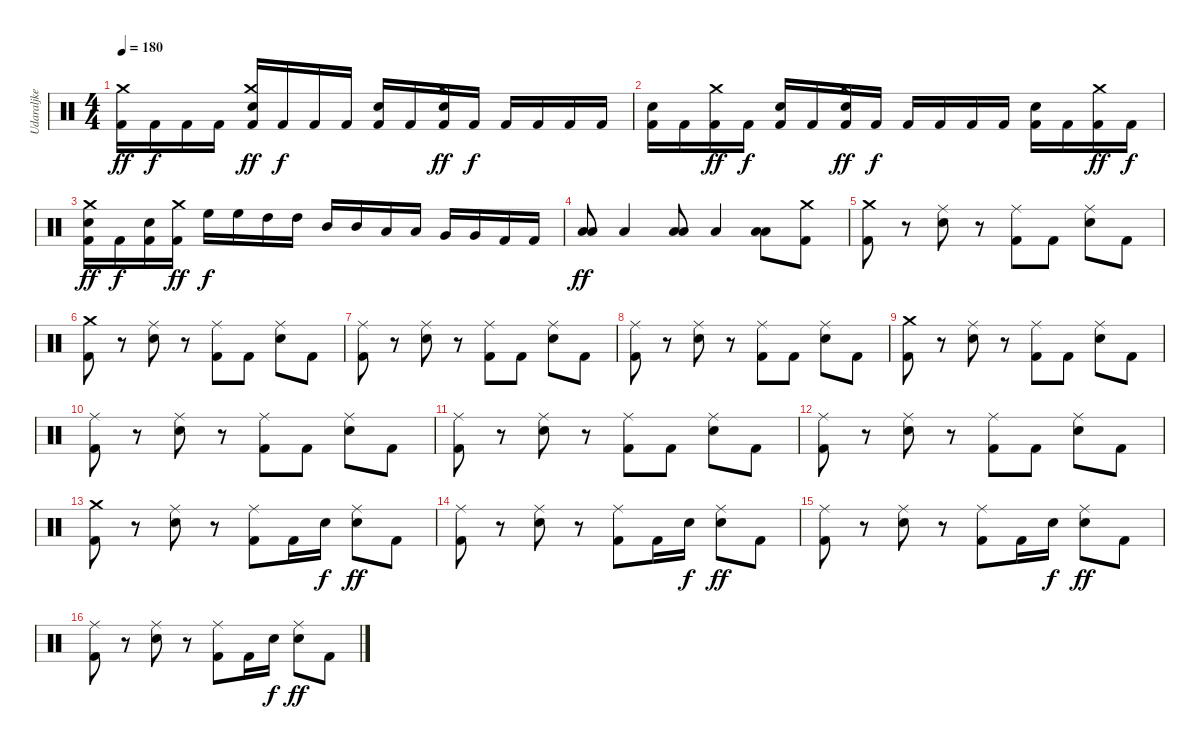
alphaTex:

\track ("Udaraljke" "Udaraljke") {instrument percussion}
\staff {score}
\articulation defaults
\ts (4 4)
\tempo 180
\clef neutral
\ks c
("Kick (hit) 2" "Crash medium (hit)").16{dy ff} "Kick (hit) 2".16{dy f} "Kick (hit) 2".16 "Kick (hit) 2".16 ("Kick (hit) 2" "Snare (hit) 2" "Crash medium (hit)").16{dy ff} "Kick (hit) 2".16{dy f} "Kick (hit) 2".16 "Kick (hit) 2".16 ("Kick (hit) 2" "Snare (hit) 2").16 "Kick (hit) 2".16 ("Kick (hit) 2" "Snare (hit) 2" "Crash medium (hit)").16{dy ff} "Kick (hit) 2".16{dy f} "Kick (hit) 2".16 "Kick (hit) 2".16 "Kick (hit) 2".16 "Kick (hit) 2".16 |
("Kick (hit) 2" "Snare (hit) 2").16 "Kick (hit) 2".16 ("Kick (hit) 2" "Crash medium (hit)").16{dy ff} "Kick (hit) 2".16{dy f} ("Kick (hit) 2" "Snare (hit) 2").16 "Kick (hit) 2".16 ("Kick (hit) 2" "Snare (hit) 2" "Crash medium (hit)").16{dy ff} "Kick (hit) 2".16{dy f} "Kick (hit) 2".16 "Kick (hit) 2".16 "Kick (hit) 2".16 "Kick (hit) 2".16 ("Kick (hit) 2" "Snare (hit) 2").16 "Kick (hit) 2".16 ("Kick (hit) 2" "Crash medium (hit)").16{dy ff} "Kick (hit) 2".16{dy f} |
("Kick (hit) 2" "Snare (hit) 2" "Crash medium (hit)").16{dy ff} "Kick (hit) 2".16{dy f} ("Kick (hit) 2" "Snare (hit) 2").16 ("Kick (hit) 2" "Crash medium (hit)").16{dy ff} "High Floor Tom (hit)".16{dy f} "High Floor Tom (hit)".16 "High Tom (hit)".16 "High Tom (hit)".16 "Mid Tom (hit)".16 "Mid Tom (hit)".16 "Low Tom (hit)".16 "Low Tom (hit)".16 "Very Low Tom (hit)".16 "Very Low Tom (hit)".16 "Kick (hit) 2".16 "Kick (hit) 2".16 |
("Low Floor Tom (hit)" "Low Floor Tom (hit)").8{dy ff} "Low Floor Tom (hit)".4 ("Low Floor Tom (hit)" "Low Floor Tom (hit)").8 "Low Floor Tom (hit)".4 ("Low Floor Tom (hit)" "Low Floor Tom (hit)").8 ("Crash medium (hit)" "Kick (hit) 2").8 |
("Kick (hit) 2" "Crash medium (hit)").8 r.8 ("Snare (hit) 2" "Ride (middle)").8 r.8 ("Kick (hit) 2" "Ride (middle)").8 "Kick (hit) 2".8 ("Snare (hit) 2" "Ride (middle)").8 "Kick (hit) 2".8 |
("Kick (hit) 2" "Crash medium (hit)").8 r.8 ("Snare (hit) 2" "Ride (middle)").8 r.8 ("Kick (hit) 2" "Ride (middle)").8 "Kick (hit) 2".8 ("Snare (hit) 2" "Ride (middle)").8 "Kick (hit) 2".8 |
("Kick (hit) 2" "Ride (middle)").8 r.8 ("Snare (hit) 2" "Ride (middle)").8 r.8 ("Kick (hit) 2" "Ride (middle)").8 "Kick (hit) 2".8 ("Snare (hit) 2" "Ride (middle)").8 "Kick (hit) 2".8 |
("Kick (hit) 2" "Ride (middle)").8 r.8 ("Snare (hit) 2" "Ride (middle)").8 r.8 ("Kick (hit) 2" "Ride (middle)").8 "Kick (hit) 2".8 ("Snare (hit) 2" "Ride (middle)").8 "Kick (hit) 2".8 |
("Kick (hit) 2" "Crash medium (hit)").8 r.8 ("Snare (hit) 2" "Ride (middle)").8 r.8 ("Kick (hit) 2" "Ride (middle)").8 "Kick (hit) 2".8 ("Snare (hit) 2" "Ride (middle)").8 "Kick (hit) 2".8 |
("Kick (hit) 2" "Ride (middle)").8 r.8 ("Snare (hit) 2" "Ride (middle)").8 r.8 ("Kick (hit) 2" "Ride (middle)").8 "Kick (hit) 2".8 ("Snare (hit) 2" "Ride (middle)").8 "Kick (hit) 2".8 |
("Kick (hit) 2" "Ride (middle)").8 r.8 ("Snare (hit) 2" "Ride (middle)").8 r.8 ("Kick (hit) 2" "Ride (middle)").8 "Kick (hit) 2".8 ("Snare (hit) 2" "Ride (middle)").8 "Kick (hit) 2".8 |
("Kick (hit) 2" "Ride (middle)").8 r.8 ("Snare (hit) 2" "Ride (middle)").8 r.8 ("Kick (hit) 2" "Ride (middle)").8 "Kick (hit) 2".8 ("Snare (hit) 2" "Ride (middle)").8 "Kick (hit) 2".8 |
("Kick (hit) 2" "Crash medium (hit)").8 r.8 ("Snare (hit) 2" "Ride (middle)").8 r.8 ("Kick (hit) 2" "Ride (middle)").8 "Kick (hit) 2".16 "Snare (hit) 2".16{dy f} ("Snare (hit) 2" "Ride (middle)").8{dy ff} "Kick (hit) 2".8 |
("Kick (hit) 2" "Ride (middle)").8 r.8 ("Snare (hit) 2" "Ride (middle)").8 r.8 ("Kick (hit) 2" "Ride (middle)").8 "Kick (hit) 2".16 "Snare (hit) 2".16{dy f} ("Snare (hit) 2" "Ride (middle)").8{dy ff} "Kick (hit) 2".8 |
("Kick (hit) 2" "Ride (middle)").8 r.8 ("Snare (hit) 2" "Ride (middle)").8 r.8 ("Kick (hit) 2" "Ride (middle)").8 "Kick (hit) 2".16 "Snare (hit) 2".16{dy f} ("Snare (hit) 2" "Ride (middle)").8{dy ff} "Kick (hit) 2".8 |
("Kick (hit) 2" "Ride (middle)").8 r.8 ("Snare (hit) 2" "Ride (middle)").8 r.8 ("Kick (hit) 2" "Ride (middle)").8 "Kick (hit) 2".16 "Snare (hit) 2".16{dy f} ("Snare (hit) 2" "Ride (middle)").8{dy ff} "Kick (hit) 2".8
